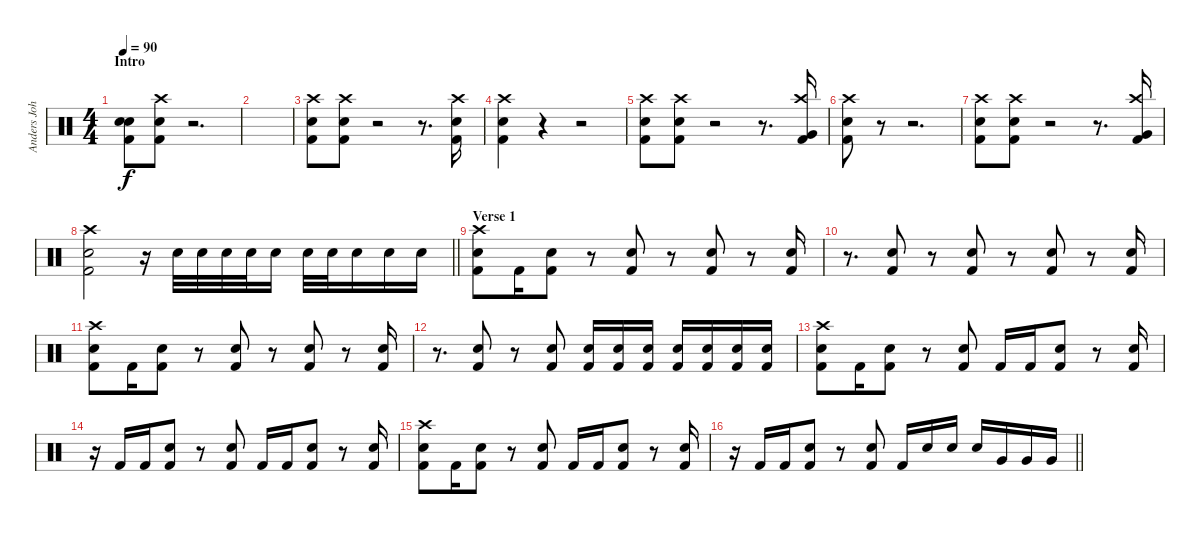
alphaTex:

\track ("Anders Johansson Drums" "Anders Joh") {instrument percussion}
\staff {score}
\articulation defaults
\ts (4 4)
\section ("" "Intro")
\tempo 90
\clef neutral
\ks c
("Snare (hit)" "Electric Snare (hit)" "Kick (hit) 2").8{dy f} ("Crash high (hit)" "Electric Snare (hit)" "Kick (hit) 2").8 r.2{d} |
|
("Crash high (hit)" "Electric Snare (hit)" "Kick (hit) 2").8 ("Crash high (hit)" "Electric Snare (hit)" "Kick (hit) 2").8 r.2 r.8{d} ("Crash high (hit)" "Electric Snare (hit)" "Kick (hit) 2").16 |
("Crash high (hit)" "Electric Snare (hit)" "Kick (hit) 2").4 r.4 r.2 |
("Crash high (hit)" "Electric Snare (hit)" "Kick (hit) 2").8 ("Crash high (hit)" "Electric Snare (hit)" "Kick (hit) 2").8 r.2 r.8{d} ("Crash high (hit)" "Very Low Tom (hit)" "Kick (hit) 2").16 |
("Crash high (hit)" "Snare (hit) 2" "Kick (hit) 2").8 r.8 r.2{d} |
("Crash high (hit)" "Electric Snare (hit)" "Kick (hit) 2").8 ("Crash high (hit)" "Electric Snare (hit)" "Kick (hit) 2").8 r.2 r.8{d} ("Crash high (hit)" "Very Low Tom (hit)" "Kick (hit) 2").16 |
\barLineRight lightlight
("Crash high (hit)" "Snare (hit) 2" "Kick (hit) 2").2 r.16 "Electric Snare (hit)".32 "Electric Snare (hit)".32 "Electric Snare (hit)".32 "Electric Snare (hit)".32 "Snare (hit) 2".16 "Snare (hit) 2".32 "Snare (hit) 2".32 "Snare (hit) 2".16 "Snare (hit) 2".16 "Snare (hit) 2".16 |
\section ("" "Verse 1")
("Crash high (hit)" "Electric Snare (hit)" "Kick (hit) 2").8 "Kick (hit) 2".16 ("Electric Snare (hit)" "Kick (hit) 2").8 r.8 ("Electric Snare (hit)" "Kick (hit) 2").8 r.8 ("Electric Snare (hit)" "Kick (hit) 2").8 r.8 ("Electric Snare (hit)" "Kick (hit) 2").16 |
r.8{d} ("Electric Snare (hit)" "Kick (hit) 2").8 r.8 ("Electric Snare (hit)" "Kick (hit) 2").8 r.8 ("Electric Snare (hit)" "Kick (hit) 2").8 r.8 ("Electric Snare (hit)" "Kick (hit) 2").16 |
("Crash high (hit)" "Electric Snare (hit)" "Kick (hit) 2").8 "Kick (hit) 2".16 ("Electric Snare (hit)" "Kick (hit) 2").8 r.8 ("Electric Snare (hit)" "Kick (hit) 2").8 r.8 ("Electric Snare (hit)" "Kick (hit) 2").8 r.8 ("Electric Snare (hit)" "Kick (hit) 2").16 |
r.8{d} ("Electric Snare (hit)" "Kick (hit) 2").8 r.8 ("Electric Snare (hit)" "Kick (hit) 2").8 ("Electric Snare (hit)" "Kick (hit) 2").16 ("Electric Snare (hit)" "Kick (hit) 2").16 ("Electric Snare (hit)" "Kick (hit) 2").16 ("Electric Snare (hit)" "Kick (hit) 2").16 ("Electric Snare (hit)" "Kick (hit) 2").16 ("Electric Snare (hit)" "Kick (hit) 2").16 ("Electric Snare (hit)" "Kick (hit) 2").16 |
("Crash high (hit)" "Electric Snare (hit)" "Kick (hit) 2").8 "Kick (hit) 2".16 ("Electric Snare (hit)" "Kick (hit) 2").8 r.8 ("Electric Snare (hit)" "Kick (hit) 2").8 "Kick (hit) 2".16 "Kick (hit) 2".16 ("Electric Snare (hit)" "Kick (hit) 2").8 r.8 ("Electric Snare (hit)" "Kick (hit) 2").16 |
r.16 "Kick (hit) 2".16 "Kick (hit) 2".16 ("Electric Snare (hit)" "Kick (hit) 2").8 r.8 ("Electric Snare (hit)" "Kick (hit) 2").8 "Kick (hit) 2".16 "Kick (hit) 2".16 ("Electric Snare (hit)" "Kick (hit) 2").8 r.8 ("Electric Snare (hit)" "Kick (hit) 2").16 |
("Crash high (hit)" "Electric Snare (hit)" "Kick (hit) 2").8 "Kick (hit) 2".16 ("Electric Snare (hit)" "Kick (hit) 2").8 r.8 ("Electric Snare (hit)" "Kick (hit) 2").8 "Kick (hit) 2".16 "Kick (hit) 2".16 ("Electric Snare (hit)" "Kick (hit) 2").8 r.8 ("Electric Snare (hit)" "Kick (hit) 2").16 |
\barLineRight lightlight
r.16 "Kick (hit) 2".16 "Kick (hit) 2".16 ("Electric Snare (hit)" "Kick (hit) 2").8 r.8 ("Electric Snare (hit)" "Kick (hit) 2").8 "Kick (hit) 2".16 "Electric Snare (hit)".16 "Electric Snare (hit)".16 "Electric Snare (hit)".16 "Very Low Tom (hit)".16 "Very Low Tom (hit)".16 "Very Low Tom (hit)".16
